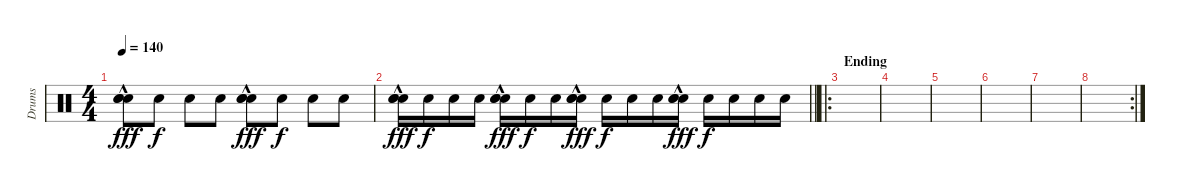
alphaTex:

\track ("Drums" "Drums") {instrument percussion}
\staff {score}
\articulation defaults
\ts (4 4)
\tempo 140
\clef neutral
\ks c
("Snare (hit) 2"{hac} "Electric Snare (hit)"{hac} "Snare (hit) 2"{hac}).8{dy fff} "Electric Snare (hit)".8{dy f} "Electric Snare (hit)".8 "Electric Snare (hit)".8 ("Snare (hit) 2"{hac} "Electric Snare (hit)"{hac} "Snare (hit) 2"{hac}).8{dy fff} "Electric Snare (hit)".8{dy f} "Electric Snare (hit)".8 "Electric Snare (hit)".8 |
\barLineRight lightlight
("Snare (hit) 2"{hac} "Electric Snare (hit)"{hac} "Snare (hit) 2"{hac}).16{dy fff} "Electric Snare (hit)".16{dy f} "Electric Snare (hit)".16 "Electric Snare (hit)".16 ("Snare (hit) 2"{hac} "Electric Snare (hit)"{hac} "Snare (hit) 2"{hac}).16{dy fff} "Electric Snare (hit)".16{dy f} "Electric Snare (hit)".16 ("Snare (hit) 2"{hac} "Electric Snare (hit)"{hac} "Snare (hit) 2"{hac}).16{dy fff} "Electric Snare (hit)".16{dy f} "Electric Snare (hit)".16 "Electric Snare (hit)".16 ("Snare (hit) 2"{hac} "Electric Snare (hit)"{hac} "Snare (hit) 2"{hac}).16{dy fff} "Electric Snare (hit)".16{dy f} "Electric Snare (hit)".16 "Electric Snare (hit)".16 "Electric Snare (hit)".16 |
\ro
\section ("" "Ending")
|
|
|
|
|
\rc 2
